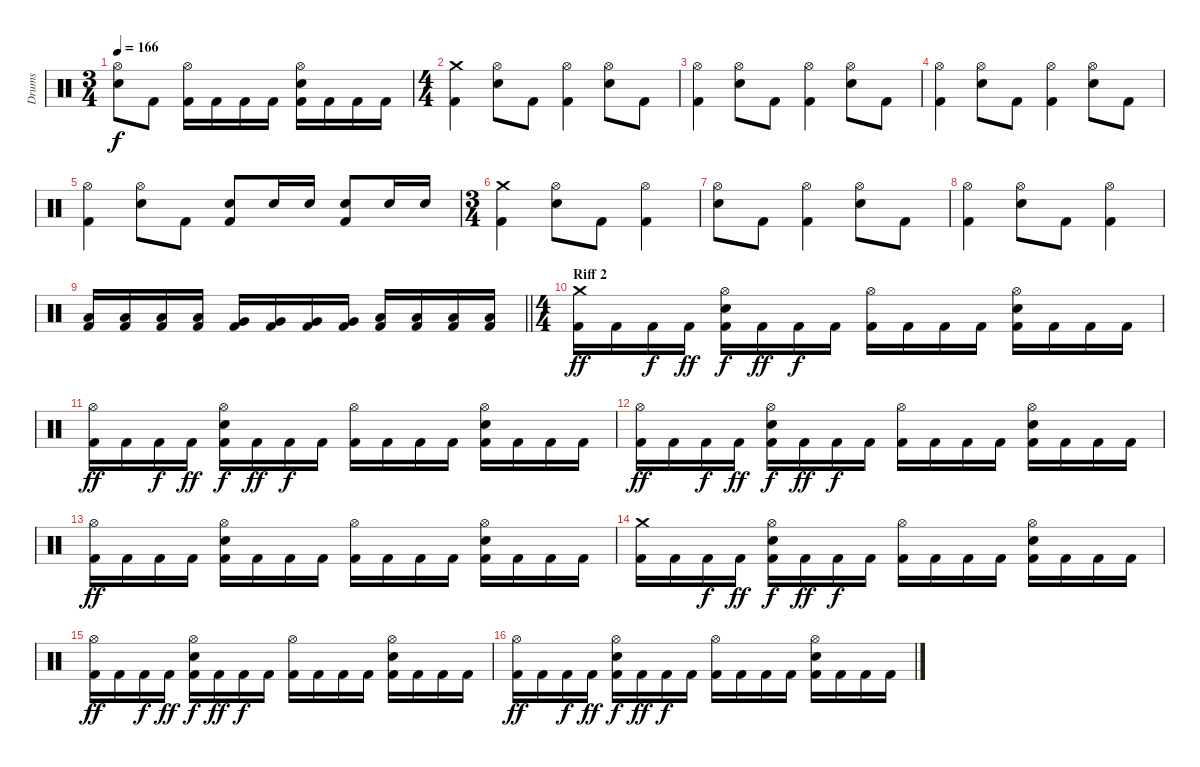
\track ("Drums" "Drums") {instrument percussion}
\staff {score}
\articulation defaults
\ts (3 4)
\tempo 166
\clef neutral
\ks c
("Hi-Hat (open)" "Snare (hit) 2").8{dy f} "Kick (hit) 2".8 ("Hi-Hat (open)" "Kick (hit) 2").16 "Kick (hit) 2".16 "Kick (hit) 2".16 "Kick (hit) 2".16 ("Hi-Hat (open)" "Snare (hit) 2" "Kick (hit) 2").16 "Kick (hit) 2".16 "Kick (hit) 2".16 "Kick (hit) 2".16 |
\ts (4 4)
("Crash medium (hit)" "Kick (hit) 2").4 ("Hi-Hat (open)" "Snare (hit) 2").8 "Kick (hit) 2".8 ("Hi-Hat (open)" "Kick (hit) 2").4 ("Hi-Hat (open)" "Snare (hit) 2").8 "Kick (hit) 2".8 |
("Hi-Hat (open)" "Kick (hit) 2").4 ("Hi-Hat (open)" "Snare (hit) 2").8 "Kick (hit) 2".8 ("Hi-Hat (open)" "Kick (hit) 2").4 ("Hi-Hat (open)" "Snare (hit) 2").8 "Kick (hit) 2".8 |
("Hi-Hat (open)" "Kick (hit) 2").4 ("Hi-Hat (open)" "Snare (hit) 2").8 "Kick (hit) 2".8 ("Hi-Hat (open)" "Kick (hit) 2").4 ("Hi-Hat (open)" "Snare (hit) 2").8 "Kick (hit) 2".8 |
("Hi-Hat (open)" "Kick (hit) 2").4 ("Hi-Hat (open)" "Snare (hit) 2").8 "Kick (hit) 2".8 ("Snare (hit) 2" "Kick (hit) 2").8 "Snare (hit) 2".16 "Snare (hit) 2".16 ("Snare (hit) 2" "Kick (hit) 2").8 "Snare (hit) 2".16 "Snare (hit) 2".16 |
\ts (3 4)
("Crash medium (hit)" "Kick (hit) 2").4 ("Hi-Hat (open)" "Snare (hit) 2").8 "Kick (hit) 2".8 ("Hi-Hat (open)" "Kick (hit) 2").4 |
("Hi-Hat (open)" "Snare (hit) 2").8 "Kick (hit) 2".8 ("Hi-Hat (open)" "Kick (hit) 2").4 ("Hi-Hat (open)" "Snare (hit) 2").8 "Kick (hit) 2".8 |
("Hi-Hat (open)" "Kick (hit) 2").4 ("Hi-Hat (open)" "Snare (hit) 2").8 "Kick (hit) 2".8 ("Hi-Hat (open)" "Kick (hit) 2").4 |
\barLineRight lightlight
("Low Tom (hit)" "Kick (hit) 2").16 ("Low Tom (hit)" "Kick (hit) 2").16 ("Low Tom (hit)" "Kick (hit) 2").16 ("Low Tom (hit)" "Kick (hit) 2").16 ("Very Low Tom (hit)" "Kick (hit) 2").16 ("Very Low Tom (hit)" "Kick (hit) 2").16 ("Very Low Tom (hit)" "Kick (hit) 2").16 ("Very Low Tom (hit)" "Kick (hit) 2").16 ("Low Floor Tom (hit)" "Kick (hit) 2").16 ("Low Floor Tom (hit)" "Kick (hit) 2").16 ("Low Floor Tom (hit)" "Kick (hit) 2").16 ("Low Floor Tom (hit)" "Kick (hit) 2").16 |
\ts (4 4)
\section ("" "Riff 2")
("Crash medium (hit)" "Kick (hit) 2").16{dy ff} "Kick (hit) 2".16 "Kick (hit) 2".16{dy f} "Kick (hit) 2".16{dy ff} ("Hi-Hat (open)" "Snare (hit) 2" "Kick (hit) 2").16{dy f} "Kick (hit) 2".16{dy ff} "Kick (hit) 2".16{dy f} "Kick (hit) 2".16 ("Hi-Hat (open)" "Kick (hit) 2").16 "Kick (hit) 2".16 "Kick (hit) 2".16 "Kick (hit) 2".16 ("Hi-Hat (open)" "Snare (hit) 2" "Kick (hit) 2").16 "Kick (hit) 2".16 "Kick (hit) 2".16 "Kick (hit) 2".16 |
("Hi-Hat (open)" "Kick (hit) 2").16{dy ff} "Kick (hit) 2".16 "Kick (hit) 2".16{dy f} "Kick (hit) 2".16{dy ff} ("Hi-Hat (open)" "Snare (hit) 2" "Kick (hit) 2").16{dy f} "Kick (hit) 2".16{dy ff} "Kick (hit) 2".16{dy f} "Kick (hit) 2".16 ("Hi-Hat (open)" "Kick (hit) 2").16 "Kick (hit) 2".16 "Kick (hit) 2".16 "Kick (hit) 2".16 ("Hi-Hat (open)" "Snare (hit) 2" "Kick (hit) 2").16 "Kick (hit) 2".16 "Kick (hit) 2".16 "Kick (hit) 2".16 |
("Hi-Hat (open)" "Kick (hit) 2").16{dy ff} "Kick (hit) 2".16 "Kick (hit) 2".16{dy f} "Kick (hit) 2".16{dy ff} ("Hi-Hat (open)" "Snare (hit) 2" "Kick (hit) 2").16{dy f} "Kick (hit) 2".16{dy ff} "Kick (hit) 2".16{dy f} "Kick (hit) 2".16 ("Hi-Hat (open)" "Kick (hit) 2").16 "Kick (hit) 2".16 "Kick (hit) 2".16 "Kick (hit) 2".16 ("Hi-Hat (open)" "Snare (hit) 2" "Kick (hit) 2").16 "Kick (hit) 2".16 "Kick (hit) 2".16 "Kick (hit) 2".16 |
("Hi-Hat (open)" "Kick (hit) 2").16{dy ff} "Kick (hit) 2".16 "Kick (hit) 2".16 "Kick (hit) 2".16 ("Hi-Hat (open)" "Snare (hit) 2" "Kick (hit) 2").16 "Kick (hit) 2".16 "Kick (hit) 2".16 "Kick (hit) 2".16 ("Hi-Hat (open)" "Kick (hit) 2").16 "Kick (hit) 2".16 "Kick (hit) 2".16 "Kick (hit) 2".16 ("Hi-Hat (open)" "Snare (hit) 2" "Kick (hit) 2").16 "Kick (hit) 2".16 "Kick (hit) 2".16 "Kick (hit) 2".16 |
("Crash medium (hit)" "Kick (hit) 2").16 "Kick (hit) 2".16 "Kick (hit) 2".16{dy f} "Kick (hit) 2".16{dy ff} ("Hi-Hat (open)" "Snare (hit) 2" "Kick (hit) 2").16{dy f} "Kick (hit) 2".16{dy ff} "Kick (hit) 2".16{dy f} "Kick (hit) 2".16 ("Hi-Hat (open)" "Kick (hit) 2").16 "Kick (hit) 2".16 "Kick (hit) 2".16 "Kick (hit) 2".16 ("Hi-Hat (open)" "Snare (hit) 2" "Kick (hit) 2").16 "Kick (hit) 2".16 "Kick (hit) 2".16 "Kick (hit) 2".16 |
("Hi-Hat (open)" "Kick (hit) 2").16{dy ff} "Kick (hit) 2".16 "Kick (hit) 2".16{dy f} "Kick (hit) 2".16{dy ff} ("Hi-Hat (open)" "Snare (hit) 2" "Kick (hit) 2").16{dy f} "Kick (hit) 2".16{dy ff} "Kick (hit) 2".16{dy f} "Kick (hit) 2".16 ("Hi-Hat (open)" "Kick (hit) 2").16 "Kick (hit) 2".16 "Kick (hit) 2".16 "Kick (hit) 2".16 ("Hi-Hat (open)" "Snare (hit) 2" "Kick (hit) 2").16 "Kick (hit) 2".16 "Kick (hit) 2".16 "Kick (hit) 2".16 |
("Hi-Hat (open)" "Kick (hit) 2").16{dy ff} "Kick (hit) 2".16 "Kick (hit) 2".16{dy f} "Kick (hit) 2".16{dy ff} ("Hi-Hat (open)" "Snare (hit) 2" "Kick (hit) 2").16{dy f} "Kick (hit) 2".16{dy ff} "Kick (hit) 2".16{dy f} "Kick (hit) 2".16 ("Hi-Hat (open)" "Kick (hit) 2").16 "Kick (hit) 2".16 "Kick (hit) 2".16 "Kick (hit) 2".16 ("Hi-Hat (open)" "Snare (hit) 2" "Kick (hit) 2").16 "Kick (hit) 2".16 "Kick (hit) 2".16 "Kick (hit) 2".16
